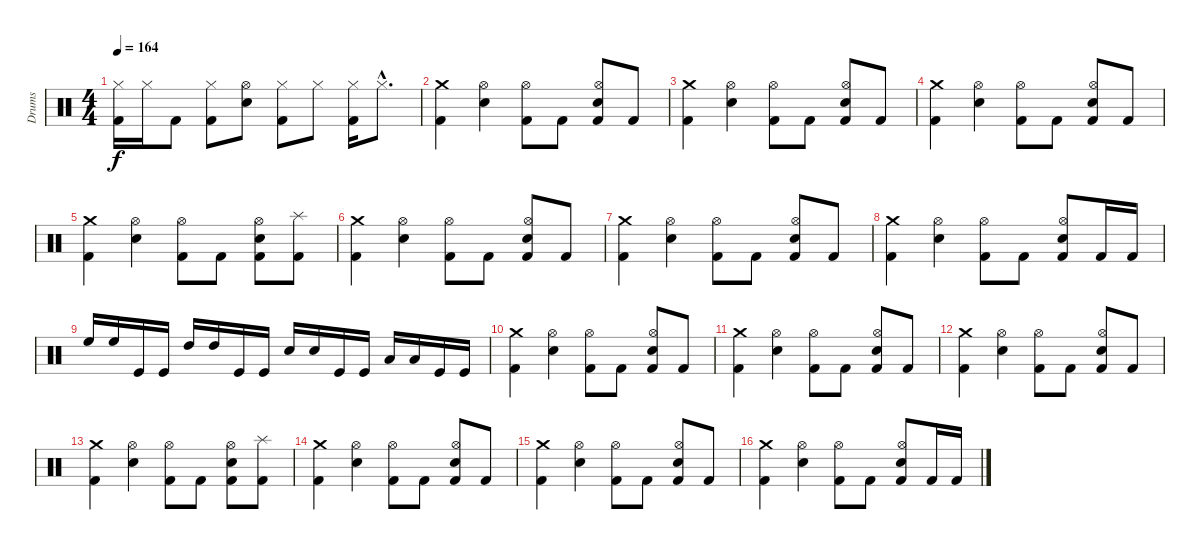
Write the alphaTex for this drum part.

\track ("Drums" "Drums") {instrument percussion}
\staff {score}
\articulation defaults
\ts (4 4)
\tempo 164
\clef neutral
\ks c
("Hi-Hat (closed)" "Kick (hit) 2").16{dy f} "Hi-Hat (closed)".16 "Kick (hit) 2".8 ("Hi-Hat (closed)" "Kick (hit) 2").8 ("Hi-Hat (open)" "Electric Snare (hit)").8 ("Hi-Hat (closed)" "Kick (hit) 2").8 "Hi-Hat (closed)".8 ("Hi-Hat (closed)" "Kick (hit) 2").16 "Hi-Hat (closed)"{hac}.8{d} |
("Crash medium (hit)" "Kick (hit) 2").4 ("Hi-Hat (open)" "Electric Snare (hit)").4 ("Hi-Hat (open)" "Kick (hit) 2").8 "Kick (hit) 2".8 ("Hi-Hat (open)" "Kick (hit) 2" "Electric Snare (hit)").8 "Kick (hit) 2".8 |
("Crash medium (hit)" "Kick (hit) 2").4 ("Hi-Hat (open)" "Electric Snare (hit)").4 ("Hi-Hat (open)" "Kick (hit) 2").8 "Kick (hit) 2".8 ("Hi-Hat (open)" "Kick (hit) 2" "Electric Snare (hit)").8 "Kick (hit) 2".8 |
("Crash medium (hit)" "Kick (hit) 2").4 ("Hi-Hat (open)" "Electric Snare (hit)").4 ("Hi-Hat (open)" "Kick (hit) 2").8 "Kick (hit) 2".8 ("Hi-Hat (open)" "Kick (hit) 2" "Electric Snare (hit)").8 "Kick (hit) 2".8 |
("Crash medium (hit)" "Kick (hit) 2").4 ("Hi-Hat (open)" "Electric Snare (hit)").4 ("Hi-Hat (open)" "Kick (hit) 2").8 "Kick (hit) 2".8 ("Hi-Hat (open)" "Kick (hit) 2" "Electric Snare (hit)").8 ("Kick (hit) 2" "Splash (hit)").8 |
("Crash medium (hit)" "Kick (hit) 2").4 ("Hi-Hat (open)" "Electric Snare (hit)").4 ("Hi-Hat (open)" "Kick (hit) 2").8 "Kick (hit) 2".8 ("Hi-Hat (open)" "Kick (hit) 2" "Electric Snare (hit)").8 "Kick (hit) 2".8 |
("Crash medium (hit)" "Kick (hit) 2").4 ("Hi-Hat (open)" "Electric Snare (hit)").4 ("Hi-Hat (open)" "Kick (hit) 2").8 "Kick (hit) 2".8 ("Hi-Hat (open)" "Kick (hit) 2" "Electric Snare (hit)").8 "Kick (hit) 2".8 |
("Crash medium (hit)" "Kick (hit) 2").4 ("Hi-Hat (open)" "Electric Snare (hit)").4 ("Hi-Hat (open)" "Kick (hit) 2").8 "Kick (hit) 2".8 ("Hi-Hat (open)" "Kick (hit) 2" "Electric Snare (hit)").8 "Kick (hit) 2".16 "Kick (hit) 2".16 |
"High Floor Tom (hit)".16 "High Floor Tom (hit)".16 "Kick (hit)".16 "Kick (hit)".16 "High Tom (hit)".16 "High Tom (hit)".16 "Kick (hit)".16 "Kick (hit)".16 "Electric Snare (hit)".16 "Electric Snare (hit)".16 "Kick (hit)".16 "Kick (hit)".16 "Low Tom (hit)".16 "Low Tom (hit)".16 "Kick (hit)".16 "Kick (hit)".16 |
("Crash medium (hit)" "Kick (hit) 2").4 ("Hi-Hat (open)" "Electric Snare (hit)").4 ("Hi-Hat (open)" "Kick (hit) 2").8 "Kick (hit) 2".8 ("Hi-Hat (open)" "Kick (hit) 2" "Electric Snare (hit)").8 "Kick (hit) 2".8 |
("Crash medium (hit)" "Kick (hit) 2").4 ("Hi-Hat (open)" "Electric Snare (hit)").4 ("Hi-Hat (open)" "Kick (hit) 2").8 "Kick (hit) 2".8 ("Hi-Hat (open)" "Kick (hit) 2" "Electric Snare (hit)").8 "Kick (hit) 2".8 |
("Crash medium (hit)" "Kick (hit) 2").4 ("Hi-Hat (open)" "Electric Snare (hit)").4 ("Hi-Hat (open)" "Kick (hit) 2").8 "Kick (hit) 2".8 ("Hi-Hat (open)" "Kick (hit) 2" "Electric Snare (hit)").8 "Kick (hit) 2".8 |
("Crash medium (hit)" "Kick (hit) 2").4 ("Hi-Hat (open)" "Electric Snare (hit)").4 ("Hi-Hat (open)" "Kick (hit) 2").8 "Kick (hit) 2".8 ("Hi-Hat (open)" "Kick (hit) 2" "Electric Snare (hit)").8 ("Kick (hit) 2" "Splash (hit)").8 |
("Crash medium (hit)" "Kick (hit) 2").4 ("Hi-Hat (open)" "Electric Snare (hit)").4 ("Hi-Hat (open)" "Kick (hit) 2").8 "Kick (hit) 2".8 ("Hi-Hat (open)" "Kick (hit) 2" "Electric Snare (hit)").8 "Kick (hit) 2".8 |
("Crash medium (hit)" "Kick (hit) 2").4 ("Hi-Hat (open)" "Electric Snare (hit)").4 ("Hi-Hat (open)" "Kick (hit) 2").8 "Kick (hit) 2".8 ("Hi-Hat (open)" "Kick (hit) 2" "Electric Snare (hit)").8 "Kick (hit) 2".8 |
("Crash medium (hit)" "Kick (hit) 2").4 ("Hi-Hat (open)" "Electric Snare (hit)").4 ("Hi-Hat (open)" "Kick (hit) 2").8 "Kick (hit) 2".8 ("Hi-Hat (open)" "Kick (hit) 2" "Electric Snare (hit)").8 "Kick (hit) 2".16 "Kick (hit) 2".16
